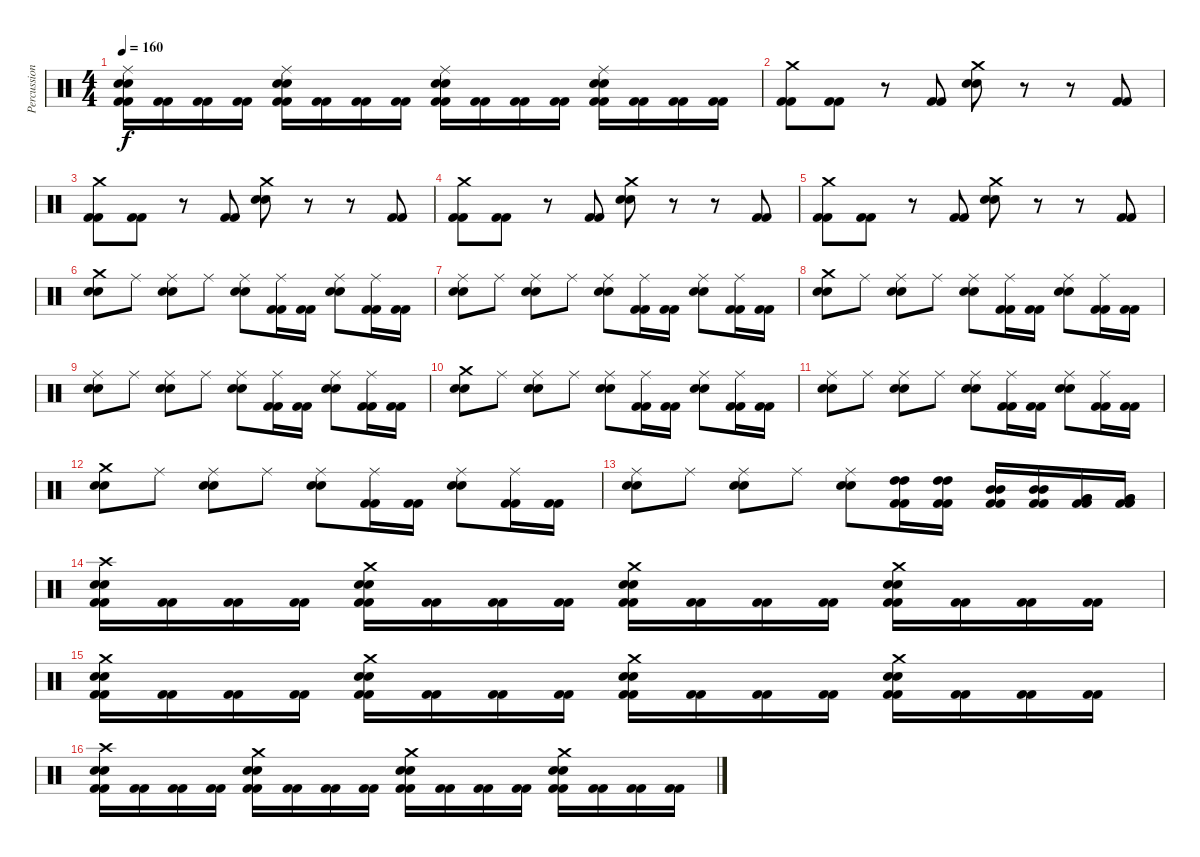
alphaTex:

\track ("Percussion" "Percussion") {instrument percussion}
\staff {score}
\articulation defaults
\ts (4 4)
\tempo 160
\clef neutral
\ks c
("Ride (middle)" "Snare (hit) 2" "Snare (hit) 2" "Kick (hit) 2" "Kick (hit) 2").16{dy f} ("Kick (hit) 2" "Kick (hit) 2").16 ("Kick (hit) 2" "Kick (hit) 2").16 ("Kick (hit) 2" "Kick (hit) 2").16 ("Ride (middle)" "Snare (hit) 2" "Snare (hit) 2" "Kick (hit) 2" "Kick (hit) 2").16 ("Kick (hit) 2" "Kick (hit) 2").16 ("Kick (hit) 2" "Kick (hit) 2").16 ("Kick (hit) 2" "Kick (hit) 2").16 ("Ride (middle)" "Snare (hit) 2" "Snare (hit) 2" "Kick (hit) 2" "Kick (hit) 2").16 ("Kick (hit) 2" "Kick (hit) 2").16 ("Kick (hit) 2" "Kick (hit) 2").16 ("Kick (hit) 2" "Kick (hit) 2").16 ("Ride (middle)" "Snare (hit) 2" "Snare (hit) 2" "Kick (hit) 2" "Kick (hit) 2").16 ("Kick (hit) 2" "Kick (hit) 2").16 ("Kick (hit) 2" "Kick (hit) 2").16 ("Kick (hit) 2" "Kick (hit) 2").16 |
("Crash medium (hit)" "Kick (hit) 2" "Kick (hit) 2").8 ("Kick (hit) 2" "Kick (hit) 2").8 r.8 ("Kick (hit) 2" "Kick (hit) 2").8 ("Crash medium (hit)" "Snare (hit) 2" "Snare (hit) 2").8 r.8 r.8 ("Kick (hit) 2" "Kick (hit) 2").8 |
("Crash medium (hit)" "Kick (hit) 2" "Kick (hit) 2").8 ("Kick (hit) 2" "Kick (hit) 2").8 r.8 ("Kick (hit) 2" "Kick (hit) 2").8 ("Crash medium (hit)" "Snare (hit) 2" "Snare (hit) 2").8 r.8 r.8 ("Kick (hit) 2" "Kick (hit) 2").8 |
("Crash medium (hit)" "Kick (hit) 2" "Kick (hit) 2").8 ("Kick (hit) 2" "Kick (hit) 2").8 r.8 ("Kick (hit) 2" "Kick (hit) 2").8 ("Crash medium (hit)" "Snare (hit) 2" "Snare (hit) 2").8 r.8 r.8 ("Kick (hit) 2" "Kick (hit) 2").8 |
("Crash medium (hit)" "Kick (hit) 2" "Kick (hit) 2").8 ("Kick (hit) 2" "Kick (hit) 2").8 r.8 ("Kick (hit) 2" "Kick (hit) 2").8 ("Crash medium (hit)" "Snare (hit) 2" "Snare (hit) 2").8 r.8 r.8 ("Kick (hit) 2" "Kick (hit) 2").8 |
("Crash medium (hit)" "Snare (hit) 2" "Snare (hit) 2").8 "Ride (middle)".8 ("Ride (middle)" "Snare (hit) 2" "Snare (hit) 2").8 "Ride (middle)".8 ("Ride (middle)" "Snare (hit) 2" "Snare (hit) 2").8 ("Ride (middle)" "Kick (hit) 2" "Kick (hit) 2").16 ("Kick (hit) 2" "Kick (hit) 2").16 ("Ride (middle)" "Snare (hit) 2" "Snare (hit) 2").8 ("Ride (middle)" "Kick (hit) 2" "Kick (hit) 2").16 ("Kick (hit) 2" "Kick (hit) 2").16 |
("Ride (middle)" "Snare (hit) 2" "Snare (hit) 2").8 "Ride (middle)".8 ("Ride (middle)" "Snare (hit) 2" "Snare (hit) 2").8 "Ride (middle)".8 ("Ride (middle)" "Snare (hit) 2" "Snare (hit) 2").8 ("Ride (middle)" "Kick (hit) 2" "Kick (hit) 2").16 ("Kick (hit) 2" "Kick (hit) 2").16 ("Ride (middle)" "Snare (hit) 2" "Snare (hit) 2").8 ("Ride (middle)" "Kick (hit) 2" "Kick (hit) 2").16 ("Kick (hit) 2" "Kick (hit) 2").16 |
("Crash medium (hit)" "Snare (hit) 2" "Snare (hit) 2").8 "Ride (middle)".8 ("Ride (middle)" "Snare (hit) 2" "Snare (hit) 2").8 "Ride (middle)".8 ("Ride (middle)" "Snare (hit) 2" "Snare (hit) 2").8 ("Ride (middle)" "Kick (hit) 2" "Kick (hit) 2").16 ("Kick (hit) 2" "Kick (hit) 2").16 ("Ride (middle)" "Snare (hit) 2" "Snare (hit) 2").8 ("Ride (middle)" "Kick (hit) 2" "Kick (hit) 2").16 ("Kick (hit) 2" "Kick (hit) 2").16 |
("Ride (middle)" "Snare (hit) 2" "Snare (hit) 2").8 "Ride (middle)".8 ("Ride (middle)" "Snare (hit) 2" "Snare (hit) 2").8 "Ride (middle)".8 ("Ride (middle)" "Snare (hit) 2" "Snare (hit) 2").8 ("Ride (middle)" "Kick (hit) 2" "Kick (hit) 2").16 ("Kick (hit) 2" "Kick (hit) 2").16 ("Ride (middle)" "Snare (hit) 2" "Snare (hit) 2").8 ("Ride (middle)" "Kick (hit) 2" "Kick (hit) 2").16 ("Kick (hit) 2" "Kick (hit) 2").16 |
("Crash medium (hit)" "Snare (hit) 2" "Snare (hit) 2").8 "Ride (middle)".8 ("Ride (middle)" "Snare (hit) 2" "Snare (hit) 2").8 "Ride (middle)".8 ("Ride (middle)" "Snare (hit) 2" "Snare (hit) 2").8 ("Ride (middle)" "Kick (hit) 2" "Kick (hit) 2").16 ("Kick (hit) 2" "Kick (hit) 2").16 ("Ride (middle)" "Snare (hit) 2" "Snare (hit) 2").8 ("Ride (middle)" "Kick (hit) 2" "Kick (hit) 2").16 ("Kick (hit) 2" "Kick (hit) 2").16 |
("Ride (middle)" "Snare (hit) 2" "Snare (hit) 2").8 "Ride (middle)".8 ("Ride (middle)" "Snare (hit) 2" "Snare (hit) 2").8 "Ride (middle)".8 ("Ride (middle)" "Snare (hit) 2" "Snare (hit) 2").8 ("Ride (middle)" "Kick (hit) 2" "Kick (hit) 2").16 ("Kick (hit) 2" "Kick (hit) 2").16 ("Ride (middle)" "Snare (hit) 2" "Snare (hit) 2").8 ("Ride (middle)" "Kick (hit) 2" "Kick (hit) 2").16 ("Kick (hit) 2" "Kick (hit) 2").16 |
("Crash medium (hit)" "Snare (hit) 2" "Snare (hit) 2").8 "Ride (middle)".8 ("Ride (middle)" "Snare (hit) 2" "Snare (hit) 2").8 "Ride (middle)".8 ("Ride (middle)" "Snare (hit) 2" "Snare (hit) 2").8 ("Ride (middle)" "Kick (hit) 2" "Kick (hit) 2").16 ("Kick (hit) 2" "Kick (hit) 2").16 ("Ride (middle)" "Snare (hit) 2" "Snare (hit) 2").8 ("Ride (middle)" "Kick (hit) 2" "Kick (hit) 2").16 ("Kick (hit) 2" "Kick (hit) 2").16 |
("Ride (middle)" "Snare (hit) 2" "Snare (hit) 2").8 "Ride (middle)".8 ("Ride (middle)" "Snare (hit) 2" "Snare (hit) 2").8 "Ride (middle)".8 ("Ride (middle)" "Snare (hit) 2" "Snare (hit) 2").8 ("High Tom (hit)" "High Tom (hit)" "Kick (hit) 2" "Kick (hit) 2").16 ("High Tom (hit)" "High Tom (hit)" "Kick (hit) 2" "Kick (hit) 2").16 ("Mid Tom (hit)" "Mid Tom (hit)" "Kick (hit) 2" "Kick (hit) 2").16 ("Mid Tom (hit)" "Mid Tom (hit)" "Kick (hit) 2" "Kick (hit) 2").16 ("Very Low Tom (hit)" "Very Low Tom (hit)" "Kick (hit) 2" "Kick (hit) 2").16 ("Very Low Tom (hit)" "Very Low Tom (hit)" "Kick (hit) 2" "Kick (hit) 2").16 |
("Crash high (hit)" "Snare (hit) 2" "Snare (hit) 2" "Kick (hit) 2" "Kick (hit) 2").16 ("Kick (hit) 2" "Kick (hit) 2").16 ("Kick (hit) 2" "Kick (hit) 2").16 ("Kick (hit) 2" "Kick (hit) 2").16 ("Crash medium (hit)" "Snare (hit) 2" "Snare (hit) 2" "Kick (hit) 2" "Kick (hit) 2").16 ("Kick (hit) 2" "Kick (hit) 2").16 ("Kick (hit) 2" "Kick (hit) 2").16 ("Kick (hit) 2" "Kick (hit) 2").16 ("Crash medium (hit)" "Snare (hit) 2" "Snare (hit) 2" "Kick (hit) 2" "Kick (hit) 2").16 ("Kick (hit) 2" "Kick (hit) 2").16 ("Kick (hit) 2" "Kick (hit) 2").16 ("Kick (hit) 2" "Kick (hit) 2").16 ("Crash medium (hit)" "Snare (hit) 2" "Snare (hit) 2" "Kick (hit) 2" "Kick (hit) 2").16 ("Kick (hit) 2" "Kick (hit) 2").16 ("Kick (hit) 2" "Kick (hit) 2").16 ("Kick (hit) 2" "Kick (hit) 2").16 |
("Crash medium (hit)" "Snare (hit) 2" "Snare (hit) 2" "Kick (hit) 2" "Kick (hit) 2").16 ("Kick (hit) 2" "Kick (hit) 2").16 ("Kick (hit) 2" "Kick (hit) 2").16 ("Kick (hit) 2" "Kick (hit) 2").16 ("Crash medium (hit)" "Snare (hit) 2" "Snare (hit) 2" "Kick (hit) 2" "Kick (hit) 2").16 ("Kick (hit) 2" "Kick (hit) 2").16 ("Kick (hit) 2" "Kick (hit) 2").16 ("Kick (hit) 2" "Kick (hit) 2").16 ("Crash medium (hit)" "Snare (hit) 2" "Snare (hit) 2" "Kick (hit) 2" "Kick (hit) 2").16 ("Kick (hit) 2" "Kick (hit) 2").16 ("Kick (hit) 2" "Kick (hit) 2").16 ("Kick (hit) 2" "Kick (hit) 2").16 ("Crash medium (hit)" "Snare (hit) 2" "Snare (hit) 2" "Kick (hit) 2" "Kick (hit) 2").16 ("Kick (hit) 2" "Kick (hit) 2").16 ("Kick (hit) 2" "Kick (hit) 2").16 ("Kick (hit) 2" "Kick (hit) 2").16 |
("Crash high (hit)" "Snare (hit) 2" "Snare (hit) 2" "Kick (hit) 2" "Kick (hit) 2").16 ("Kick (hit) 2" "Kick (hit) 2").16 ("Kick (hit) 2" "Kick (hit) 2").16 ("Kick (hit) 2" "Kick (hit) 2").16 ("Crash medium (hit)" "Snare (hit) 2" "Snare (hit) 2" "Kick (hit) 2" "Kick (hit) 2").16 ("Kick (hit) 2" "Kick (hit) 2").16 ("Kick (hit) 2" "Kick (hit) 2").16 ("Kick (hit) 2" "Kick (hit) 2").16 ("Crash medium (hit)" "Snare (hit) 2" "Snare (hit) 2" "Kick (hit) 2" "Kick (hit) 2").16 ("Kick (hit) 2" "Kick (hit) 2").16 ("Kick (hit) 2" "Kick (hit) 2").16 ("Kick (hit) 2" "Kick (hit) 2").16 ("Crash medium (hit)" "Snare (hit) 2" "Snare (hit) 2" "Kick (hit) 2" "Kick (hit) 2").16 ("Kick (hit) 2" "Kick (hit) 2").16 ("Kick (hit) 2" "Kick (hit) 2").16 ("Kick (hit) 2" "Kick (hit) 2").16
